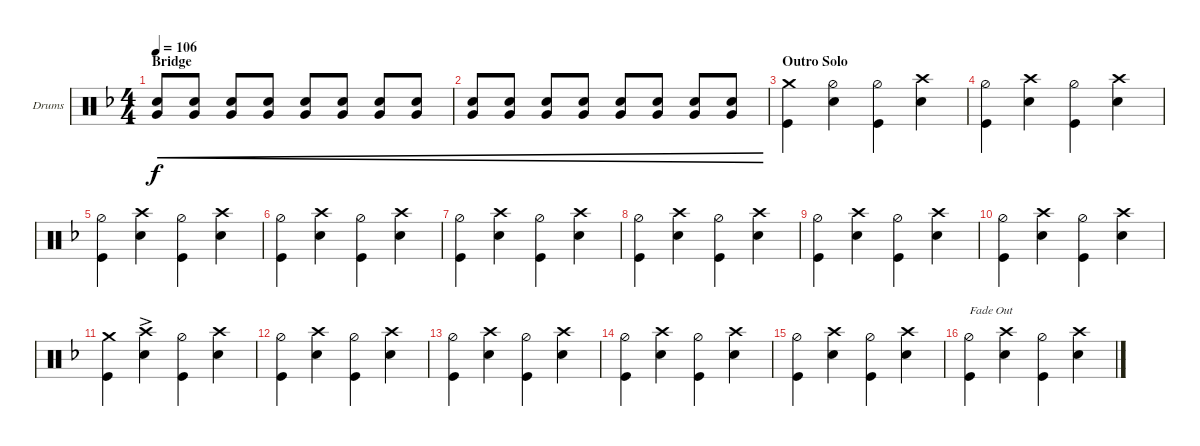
\defaultSystemsLayout 4
\bracketExtendMode groupsimilarinstruments
\firstSystemTrackNameOrientation horizontal
\otherSystemsTrackNameOrientation horizontal
\track ("Simon Wright" "Drums") {instrument percussion}
\staff {score}
\articulation defaults
\ts (4 4)
\section ("" "Bridge")
\tempo 106
\clef neutral
\ks dminor
("Snare (hit) 2" "Very Low Tom (hit)").8{cre dy f} ("Snare (hit) 2" "Very Low Tom (hit)").8{cre} ("Snare (hit) 2" "Very Low Tom (hit)").8{cre} ("Snare (hit) 2" "Very Low Tom (hit)").8{cre} ("Snare (hit) 2" "Very Low Tom (hit)").8{cre} ("Snare (hit) 2" "Very Low Tom (hit)").8{cre} ("Snare (hit) 2" "Very Low Tom (hit)").8{cre} ("Snare (hit) 2" "Very Low Tom (hit)").8{cre} |
("Snare (hit) 2" "Very Low Tom (hit)").8{cre} ("Snare (hit) 2" "Very Low Tom (hit)").8{cre} ("Snare (hit) 2" "Very Low Tom (hit)").8{cre} ("Snare (hit) 2" "Very Low Tom (hit)").8{cre} ("Snare (hit) 2" "Very Low Tom (hit)").8{cre} ("Snare (hit) 2" "Very Low Tom (hit)").8{cre} ("Snare (hit) 2" "Very Low Tom (hit)").8{cre} ("Snare (hit) 2" "Very Low Tom (hit)").8{cre} |
\section ("" "Outro Solo")
("Kick (hit)" "Crash medium (hit)").4 ("Snare (hit) 2" "Hi-Hat (half)").4 ("Kick (hit)" "Hi-Hat (half)").4 ("Snare (hit) 2" "Crash high (hit)").4 |
("Kick (hit)" "Hi-Hat (half)").4 ("Snare (hit) 2" "Crash high (hit)").4 ("Kick (hit)" "Hi-Hat (half)").4 ("Snare (hit) 2" "Crash high (hit)").4 |
("Kick (hit)" "Hi-Hat (half)").4 ("Snare (hit) 2" "Crash high (hit)").4 ("Kick (hit)" "Hi-Hat (half)").4 ("Snare (hit) 2" "Crash high (hit)").4 |
("Kick (hit)" "Hi-Hat (half)").4 ("Snare (hit) 2" "Crash high (hit)").4 ("Kick (hit)" "Hi-Hat (half)").4 ("Snare (hit) 2" "Crash high (hit)").4 |
("Kick (hit)" "Hi-Hat (half)").4 ("Snare (hit) 2" "Crash high (hit)").4 ("Kick (hit)" "Hi-Hat (half)").4 ("Snare (hit) 2" "Crash high (hit)").4 |
("Kick (hit)" "Hi-Hat (half)").4 ("Snare (hit) 2" "Crash high (hit)").4 ("Kick (hit)" "Hi-Hat (half)").4 ("Snare (hit) 2" "Crash high (hit)").4 |
("Kick (hit)" "Hi-Hat (half)").4 ("Snare (hit) 2" "Crash high (hit)").4 ("Kick (hit)" "Hi-Hat (half)").4 ("Snare (hit) 2" "Crash high (hit)").4 |
("Kick (hit)" "Hi-Hat (half)").4 ("Snare (hit) 2" "Crash high (hit)").4 ("Kick (hit)" "Hi-Hat (half)").4 ("Snare (hit) 2" "Crash high (hit)").4 |
("Kick (hit)" "Crash medium (hit)").4 ("Snare (hit) 2" "Crash high (hit)"{ac}).4 ("Kick (hit)" "Hi-Hat (half)").4 ("Snare (hit) 2" "Crash high (hit)").4 |
("Kick (hit)" "Hi-Hat (half)").4 ("Snare (hit) 2" "Crash high (hit)").4 ("Kick (hit)" "Hi-Hat (half)").4 ("Snare (hit) 2" "Crash high (hit)").4 |
("Kick (hit)" "Hi-Hat (half)").4 ("Snare (hit) 2" "Crash high (hit)").4 ("Kick (hit)" "Hi-Hat (half)").4 ("Snare (hit) 2" "Crash high (hit)").4 |
("Kick (hit)" "Hi-Hat (half)").4 ("Snare (hit) 2" "Crash high (hit)").4 ("Kick (hit)" "Hi-Hat (half)").4 ("Snare (hit) 2" "Crash high (hit)").4 |
("Kick (hit)" "Hi-Hat (half)").4 ("Snare (hit) 2" "Crash high (hit)").4 ("Kick (hit)" "Hi-Hat (half)").4 ("Snare (hit) 2" "Crash high (hit)").4 |
("Kick (hit)" "Hi-Hat (half)").4{txt "Fade Out"} ("Snare (hit) 2" "Crash high (hit)").4 ("Kick (hit)" "Hi-Hat (half)").4 ("Snare (hit) 2" "Crash high (hit)").4
